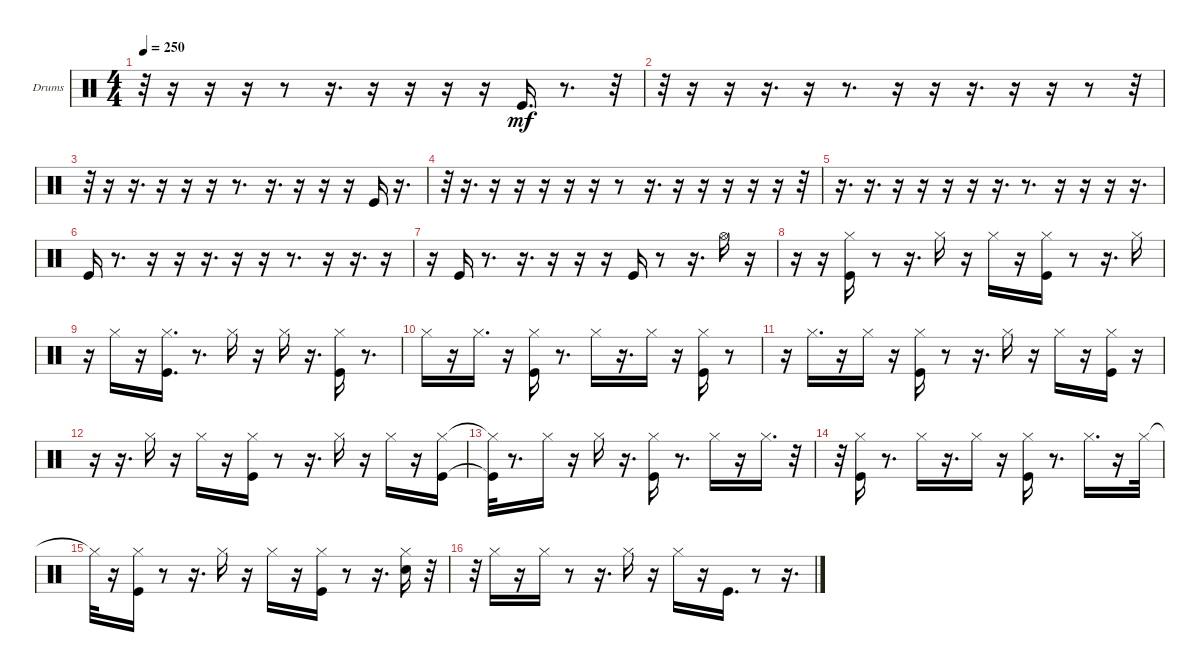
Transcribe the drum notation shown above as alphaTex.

\bracketExtendMode groupsimilarinstruments
\firstSystemTrackNameOrientation horizontal
\otherSystemsTrackNameOrientation horizontal
\track ("Drums" "Drums") {instrument percussion}
\staff {score}
\articulation defaults
\ts (4 4)
\tempo 250
\clef neutral
\ks c
r.32{dy mf} r.16 r.16 r.16 r.8 r.16{d} r.16 r.16 r.16 r.16 "Kick (hit)".16{d} r.8{d} r.32 |
r.32 r.16 r.16 r.16{d} r.16 r.8{d} r.16 r.16 r.16{d} r.16 r.16 r.8 r.32 |
r.32 r.16 r.16{d} r.16 r.16 r.16 r.8{d} r.16{d} r.16 r.16 r.16 "Kick (hit)".16 r.16{d} |
r.32 r.16{d} r.16 r.16 r.16 r.16 r.16 r.8 r.16{d} r.16 r.16 r.16 r.16 r.16 r.32 |
r.16{d} r.16{d} r.16 r.16 r.16 r.16 r.16{d} r.8{d} r.16 r.16 r.16 r.16{d} |
"Kick (hit)".16 r.8{d} r.16 r.16 r.16{d} r.16 r.16 r.8{d} r.16 r.16{d} r.16 |
r.16 "Kick (hit)".16 r.8{d} r.16{d} r.16 r.16 r.16 "Kick (hit)".16 r.8 r.16{d} "Hi-Hat (open)".16 r.16 |
r.16 r.16 ("Hi-Hat (closed)" "Kick (hit)").16 r.8 r.16{d} "Hi-Hat (closed)".16 r.16 "Hi-Hat (closed)".16 r.16 ("Hi-Hat (closed)" "Kick (hit)").16 r.8 r.16{d} "Hi-Hat (closed)".16 |
r.16 "Hi-Hat (closed)".16 r.16 ("Hi-Hat (closed)" "Kick (hit)").16{d} r.8{d} "Hi-Hat (closed)".16 r.16 "Hi-Hat (closed)".16 r.16{d} ("Hi-Hat (closed)" "Kick (hit)").16 r.8{d} |
"Hi-Hat (closed)".16 r.16 "Hi-Hat (closed)".16{d} r.16 ("Hi-Hat (closed)" "Kick (hit)").16 r.8{d} "Hi-Hat (closed)".16 r.16{d} "Hi-Hat (closed)".16 r.16 ("Hi-Hat (closed)" "Kick (hit)").16 r.8 |
r.16 "Hi-Hat (closed)".16{d} r.16 "Hi-Hat (closed)".16 r.16 ("Hi-Hat (closed)" "Kick (hit)").16 r.8 r.16{d} "Hi-Hat (closed)".16 r.16 "Hi-Hat (closed)".16 r.16 ("Hi-Hat (closed)" "Kick (hit)").16 r.16 |
r.16 r.16{d} "Hi-Hat (closed)".16 r.16 "Hi-Hat (closed)".16 r.16 ("Hi-Hat (closed)" "Kick (hit)").16 r.8 r.16{d} "Hi-Hat (closed)".16 r.16 "Hi-Hat (closed)".16 r.16 ("Hi-Hat (closed)" "Kick (hit)").16 |
("Hi-Hat (closed)"{t} "Kick (hit)"{t}).32 r.8{d} "Hi-Hat (closed)".16 r.16 "Hi-Hat (closed)".16 r.16{d} ("Hi-Hat (closed)" "Kick (hit)").16 r.8{d} "Hi-Hat (closed)".16 r.16 "Hi-Hat (closed)".16{d} r.32 |
r.32 ("Hi-Hat (closed)" "Kick (hit)").16 r.8{d} "Hi-Hat (closed)".16 r.16{d} "Hi-Hat (closed)".16 r.16 ("Hi-Hat (closed)" "Kick (hit)").16 r.8{d} "Hi-Hat (closed)".16{d} r.16 "Hi-Hat (closed)".32 |
"Hi-Hat (closed)"{t}.32 r.16 ("Hi-Hat (closed)" "Kick (hit)").16 r.8 r.16{d} "Hi-Hat (closed)".16 r.16 "Hi-Hat (closed)".16 r.16 ("Hi-Hat (closed)" "Kick (hit)").16 r.8 r.16{d} ("Hi-Hat (closed)" "Snare (hit) 2").16 r.32 |
r.32 "Hi-Hat (closed)".16 r.16 "Hi-Hat (closed)".16 r.8 r.16{d} "Hi-Hat (closed)".16 r.16 "Hi-Hat (closed)".16 r.16 "Kick (hit)".16{d} r.8 r.16{d}
